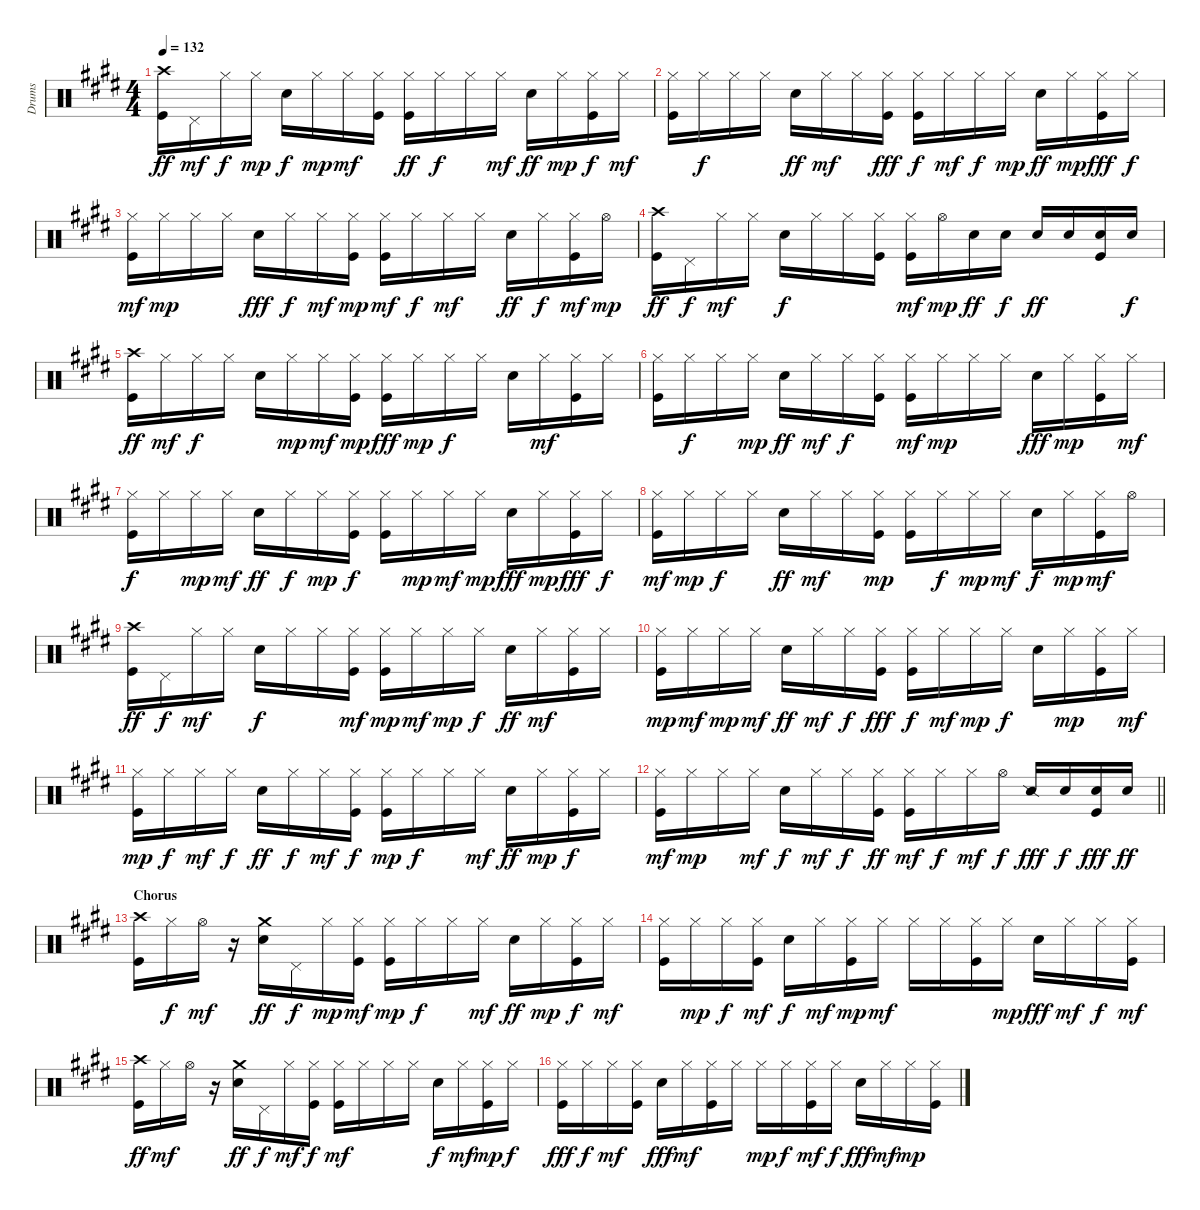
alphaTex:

\track ("Drums" "Drums") {instrument percussion}
\staff {score}
\articulation defaults
\ts (4 4)
\tempo 132
\clef neutral
\ks e
("Kick (hit)" "Crash high (hit)").16{dy ff} "Pedal Hi-Hat (hit)".16{dy mf} "Hi-Hat (closed)".16{dy f} "Hi-Hat (closed)".16{dy mp} "Snare (hit) 2".16{dy f} "Hi-Hat (closed)".16{dy mp} "Hi-Hat (closed)".16{dy mf} ("Kick (hit)" "Hi-Hat (closed)").16 ("Kick (hit)" "Hi-Hat (closed)").16{dy ff} "Hi-Hat (closed)".16{dy f} "Hi-Hat (closed)".16 "Hi-Hat (closed)".16{dy mf} "Snare (hit) 2".16{dy ff} "Hi-Hat (closed)".16{dy mp} ("Kick (hit)" "Hi-Hat (closed)").16{dy f} "Hi-Hat (closed)".16{dy mf} |
("Kick (hit)" "Hi-Hat (closed)").16 "Hi-Hat (closed)".16{dy f} "Hi-Hat (closed)".16 "Hi-Hat (closed)".16 "Snare (hit) 2".16{dy ff} "Hi-Hat (closed)".16{dy mf} "Hi-Hat (closed)".16 ("Kick (hit)" "Hi-Hat (closed)").16{dy fff} ("Kick (hit)" "Hi-Hat (closed)").16{dy f} "Hi-Hat (closed)".16{dy mf} "Hi-Hat (closed)".16{dy f} "Hi-Hat (closed)".16{dy mp} "Snare (hit) 2".16{dy ff} "Hi-Hat (closed)".16{dy mp} ("Kick (hit)" "Hi-Hat (closed)").16{dy fff} "Hi-Hat (closed)".16{dy f} |
("Kick (hit)" "Hi-Hat (closed)").16{dy mf} "Hi-Hat (closed)".16{dy mp} "Hi-Hat (closed)".16 "Hi-Hat (closed)".16 "Snare (hit) 2".16{dy fff} "Hi-Hat (closed)".16{dy f} "Hi-Hat (closed)".16{dy mf} ("Kick (hit)" "Hi-Hat (closed)").16{dy mp} ("Kick (hit)" "Hi-Hat (closed)").16{dy mf} "Hi-Hat (closed)".16{dy f} "Hi-Hat (closed)".16{dy mf} "Hi-Hat (closed)".16 "Snare (hit) 2".16{dy ff} "Hi-Hat (closed)".16{dy f} ("Kick (hit)" "Hi-Hat (closed)").16{dy mf} "Hi-Hat (open)".16{dy mp} |
("Kick (hit)" "Crash high (hit)").16{dy ff} "Pedal Hi-Hat (hit)".16{dy f} "Hi-Hat (closed)".16{dy mf} "Hi-Hat (closed)".16 "Snare (hit) 2".16{dy f} "Hi-Hat (closed)".16 "Hi-Hat (closed)".16 ("Kick (hit)" "Hi-Hat (closed)").16 ("Kick (hit)" "Hi-Hat (closed)").16{dy mf} "Hi-Hat (open)".16{dy mp} "Snare (hit) 2".16{dy ff} "Snare (hit) 2".16{dy f} "Snare (hit) 2".16{dy ff} "Snare (hit) 2".16 ("Kick (hit)" "Snare (hit) 2").16 "Snare (hit) 2".16{dy f} |
("Kick (hit)" "Crash high (hit)").16{dy ff} "Hi-Hat (closed)".16{dy mf} "Hi-Hat (closed)".16{dy f} "Hi-Hat (closed)".16 "Snare (hit) 2".16 "Hi-Hat (closed)".16{dy mp} "Hi-Hat (closed)".16{dy mf} ("Kick (hit)" "Hi-Hat (closed)").16{dy mp} ("Kick (hit)" "Hi-Hat (closed)").16{dy fff} "Hi-Hat (closed)".16{dy mp} "Hi-Hat (closed)".16{dy f} "Hi-Hat (closed)".16 "Snare (hit) 2".16 "Hi-Hat (closed)".16{dy mf} ("Kick (hit)" "Hi-Hat (closed)").16 "Hi-Hat (closed)".16 |
("Kick (hit)" "Hi-Hat (closed)").16 "Hi-Hat (closed)".16{dy f} "Hi-Hat (closed)".16 "Hi-Hat (closed)".16{dy mp} "Snare (hit) 2".16{dy ff} "Hi-Hat (closed)".16{dy mf} "Hi-Hat (closed)".16{dy f} ("Kick (hit)" "Hi-Hat (closed)").16 ("Kick (hit)" "Hi-Hat (closed)").16{dy mf} "Hi-Hat (closed)".16{dy mp} "Hi-Hat (closed)".16 "Hi-Hat (closed)".16 "Snare (hit) 2".16{dy fff} "Hi-Hat (closed)".16{dy mp} ("Kick (hit)" "Hi-Hat (closed)").16 "Hi-Hat (closed)".16{dy mf} |
("Kick (hit)" "Hi-Hat (closed)").16{dy f} "Hi-Hat (closed)".16 "Hi-Hat (closed)".16{dy mp} "Hi-Hat (closed)".16{dy mf} "Snare (hit) 2".16{dy ff} "Hi-Hat (closed)".16{dy f} "Hi-Hat (closed)".16{dy mp} ("Kick (hit)" "Hi-Hat (closed)").16{dy f} ("Kick (hit)" "Hi-Hat (closed)").16 "Hi-Hat (closed)".16{dy mp} "Hi-Hat (closed)".16{dy mf} "Hi-Hat (closed)".16{dy mp} "Snare (hit) 2".16{dy fff} "Hi-Hat (closed)".16{dy mp} ("Kick (hit)" "Hi-Hat (closed)").16{dy fff} "Hi-Hat (closed)".16{dy f} |
("Kick (hit)" "Hi-Hat (closed)").16{dy mf} "Hi-Hat (closed)".16{dy mp} "Hi-Hat (closed)".16{dy f} "Hi-Hat (closed)".16 "Snare (hit) 2".16{dy ff} "Hi-Hat (closed)".16{dy mf} "Hi-Hat (closed)".16 ("Kick (hit)" "Hi-Hat (closed)").16{dy mp} ("Kick (hit)" "Hi-Hat (closed)").16 "Hi-Hat (closed)".16{dy f} "Hi-Hat (closed)".16{dy mp} "Hi-Hat (closed)".16{dy mf} "Snare (hit) 2".16{dy f} "Hi-Hat (closed)".16{dy mp} ("Kick (hit)" "Hi-Hat (closed)").16{dy mf} "Hi-Hat (open)".16 |
("Kick (hit)" "Crash high (hit)").16{dy ff} "Pedal Hi-Hat (hit)".16{dy f} "Hi-Hat (closed)".16{dy mf} "Hi-Hat (closed)".16 "Snare (hit) 2".16{dy f} "Hi-Hat (closed)".16 "Hi-Hat (closed)".16 ("Kick (hit)" "Hi-Hat (closed)").16{dy mf} ("Kick (hit)" "Hi-Hat (closed)").16{dy mp} "Hi-Hat (closed)".16{dy mf} "Hi-Hat (closed)".16{dy mp} "Hi-Hat (closed)".16{dy f} "Snare (hit) 2".16{dy ff} "Hi-Hat (closed)".16{dy mf} ("Kick (hit)" "Hi-Hat (closed)").16 "Hi-Hat (closed)".16 |
("Kick (hit)" "Hi-Hat (closed)").16{dy mp} "Hi-Hat (closed)".16{dy mf} "Hi-Hat (closed)".16{dy mp} "Hi-Hat (closed)".16{dy mf} "Snare (hit) 2".16{dy ff} "Hi-Hat (closed)".16{dy mf} "Hi-Hat (closed)".16{dy f} ("Kick (hit)" "Hi-Hat (closed)").16{dy fff} ("Kick (hit)" "Hi-Hat (closed)").16{dy f} "Hi-Hat (closed)".16{dy mf} "Hi-Hat (closed)".16{dy mp} "Hi-Hat (closed)".16{dy f} "Snare (hit) 2".16 "Hi-Hat (closed)".16{dy mp} ("Kick (hit)" "Hi-Hat (closed)").16 "Hi-Hat (closed)".16{dy mf} |
("Kick (hit)" "Hi-Hat (closed)").16{dy mp} "Hi-Hat (closed)".16{dy f} "Hi-Hat (closed)".16{dy mf} "Hi-Hat (closed)".16{dy f} "Snare (hit) 2".16{dy ff} "Hi-Hat (closed)".16{dy f} "Hi-Hat (closed)".16{dy mf} ("Kick (hit)" "Hi-Hat (closed)").16{dy f} ("Kick (hit)" "Hi-Hat (closed)").16{dy mp} "Hi-Hat (closed)".16{dy f} "Hi-Hat (closed)".16 "Hi-Hat (closed)".16{dy mf} "Snare (hit) 2".16{dy ff} "Hi-Hat (closed)".16{dy mp} ("Kick (hit)" "Hi-Hat (closed)").16{dy f} "Hi-Hat (closed)".16 |
\barLineRight lightlight
("Kick (hit)" "Hi-Hat (closed)").16{dy mf} "Hi-Hat (closed)".16{dy mp} "Hi-Hat (closed)".16 "Hi-Hat (closed)".16{dy mf} "Snare (hit) 2".16{dy f} "Hi-Hat (closed)".16{dy mf} "Hi-Hat (closed)".16{dy f} ("Kick (hit)" "Hi-Hat (closed)").16{dy ff} ("Kick (hit)" "Hi-Hat (closed)").16{dy mf} "Hi-Hat (closed)".16{dy f} "Hi-Hat (closed)".16{dy mf} "Hi-Hat (open)".16{dy f} "Snare (side stick) 2".16{dy fff} "Snare (hit) 2".16{dy f} ("Kick (hit)" "Snare (hit) 2").16{dy fff} "Snare (hit) 2".16{dy ff} |
\section ("" "Chorus")
("Kick (hit)" "Crash high (hit)").16 "Hi-Hat (closed)".16{dy f} "Hi-Hat (open)".16{dy mf} r.16 ("Snare (hit) 2" "Crash medium (hit)").16{dy ff} "Pedal Hi-Hat (hit)".16{dy f} "Hi-Hat (closed)".16{dy mp} ("Kick (hit)" "Hi-Hat (closed)").16{dy mf} ("Kick (hit)" "Hi-Hat (closed)").16{dy mp} "Hi-Hat (closed)".16{dy f} "Hi-Hat (closed)".16 "Hi-Hat (closed)".16{dy mf} "Snare (hit) 2".16{dy ff} "Hi-Hat (closed)".16{dy mp} ("Kick (hit)" "Hi-Hat (closed)").16{dy f} "Hi-Hat (closed)".16{dy mf} |
("Kick (hit)" "Hi-Hat (closed)").16 "Hi-Hat (closed)".16{dy mp} "Hi-Hat (closed)".16{dy f} ("Kick (hit)" "Hi-Hat (closed)").16{dy mf} "Snare (hit) 2".16{dy f} "Hi-Hat (closed)".16{dy mf} ("Kick (hit)" "Hi-Hat (closed)").16{dy mp} "Hi-Hat (closed)".16{dy mf} "Hi-Hat (closed)".16 "Hi-Hat (closed)".16 ("Kick (hit)" "Hi-Hat (closed)").16 "Hi-Hat (closed)".16{dy mp} "Snare (hit) 2".16{dy fff} "Hi-Hat (closed)".16{dy mf} "Hi-Hat (closed)".16{dy f} ("Kick (hit)" "Hi-Hat (closed)").16{dy mf} |
("Kick (hit)" "Crash high (hit)").16{dy ff} "Hi-Hat (closed)".16{dy mf} "Hi-Hat (open)".16 r.16 ("Snare (hit) 2" "Crash medium (hit)").16{dy ff} "Pedal Hi-Hat (hit)".16{dy f} "Hi-Hat (closed)".16{dy mf} ("Kick (hit)" "Hi-Hat (closed)").16{dy f} ("Kick (hit)" "Hi-Hat (closed)").16{dy mf} "Hi-Hat (closed)".16 "Hi-Hat (closed)".16 "Hi-Hat (closed)".16 "Snare (hit) 2".16{dy f} "Hi-Hat (closed)".16{dy mf} ("Kick (hit)" "Hi-Hat (closed)").16{dy mp} "Hi-Hat (closed)".16{dy f} |
("Kick (hit)" "Hi-Hat (closed)").16{dy fff} "Hi-Hat (closed)".16{dy f} "Hi-Hat (closed)".16{dy mf} ("Kick (hit)" "Hi-Hat (closed)").16 "Snare (hit) 2".16{dy fff} "Hi-Hat (closed)".16{dy mf} ("Kick (hit)" "Hi-Hat (closed)").16 "Hi-Hat (closed)".16 "Hi-Hat (closed)".16{dy mp} "Hi-Hat (closed)".16{dy f} ("Kick (hit)" "Hi-Hat (closed)").16{dy mf} "Hi-Hat (closed)".16{dy f} "Snare (hit) 2".16{dy fff} "Hi-Hat (closed)".16{dy mf} "Hi-Hat (closed)".16{dy mp} ("Kick (hit)" "Hi-Hat (closed)").16
